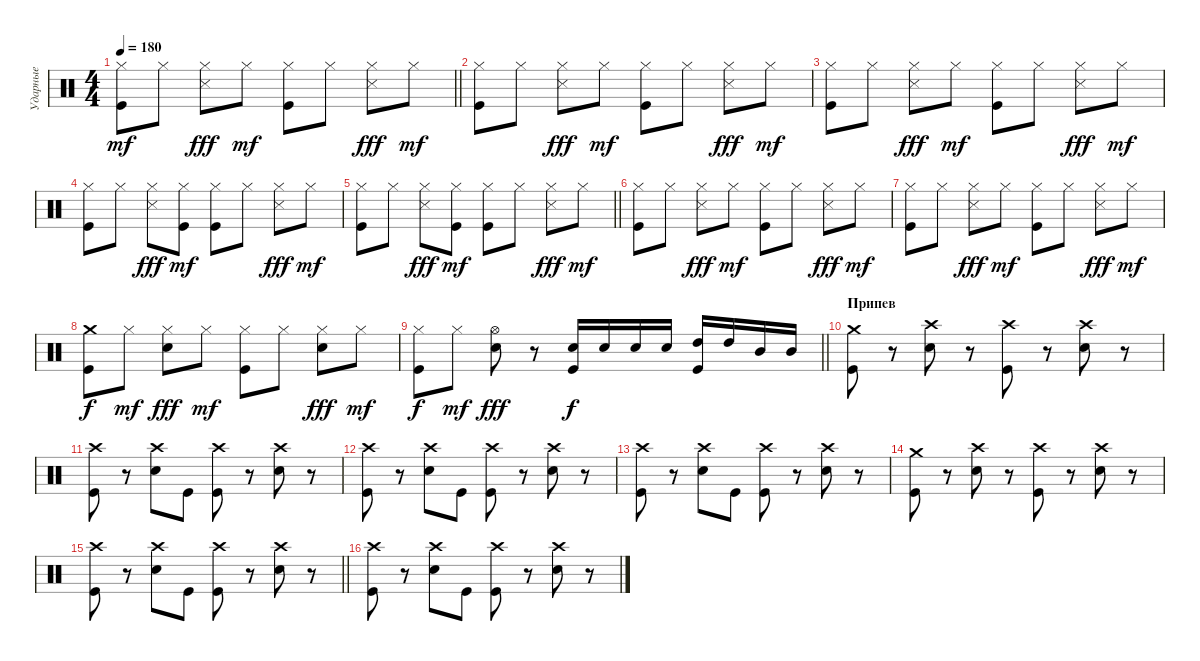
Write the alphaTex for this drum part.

\track ("Ударные" "Ударные") {instrument percussion}
\staff {score}
\articulation defaults
\ts (4 4)
\tempo 180
\clef neutral
\barLineRight lightlight
\ks c
("Hi-Hat (closed)" "Kick (hit)").8{dy mf} "Hi-Hat (closed)".8 ("Hi-Hat (closed)" "Metronome (hit)").8{dy fff} "Hi-Hat (closed)".8{dy mf} ("Hi-Hat (closed)" "Kick (hit)").8 "Hi-Hat (closed)".8 ("Hi-Hat (closed)" "Metronome (hit)").8{dy fff} "Hi-Hat (closed)".8{dy mf} |
("Hi-Hat (closed)" "Kick (hit)").8 "Hi-Hat (closed)".8 ("Hi-Hat (closed)" "Metronome (hit)").8{dy fff} "Hi-Hat (closed)".8{dy mf} ("Hi-Hat (closed)" "Kick (hit)").8 "Hi-Hat (closed)".8 ("Hi-Hat (closed)" "Metronome (hit)").8{dy fff} "Hi-Hat (closed)".8{dy mf} |
("Hi-Hat (closed)" "Kick (hit)").8 "Hi-Hat (closed)".8 ("Hi-Hat (closed)" "Metronome (hit)").8{dy fff} "Hi-Hat (closed)".8{dy mf} ("Hi-Hat (closed)" "Kick (hit)").8 "Hi-Hat (closed)".8 ("Hi-Hat (closed)" "Metronome (hit)").8{dy fff} "Hi-Hat (closed)".8{dy mf} |
("Hi-Hat (closed)" "Kick (hit)").8 "Hi-Hat (closed)".8 ("Hi-Hat (closed)" "Metronome (hit)").8{dy fff} ("Hi-Hat (closed)" "Kick (hit)").8{dy mf} ("Hi-Hat (closed)" "Kick (hit)").8 "Hi-Hat (closed)".8 ("Hi-Hat (closed)" "Metronome (hit)").8{dy fff} "Hi-Hat (closed)".8{dy mf} |
\barLineRight lightlight
("Hi-Hat (closed)" "Kick (hit)").8 "Hi-Hat (closed)".8 ("Hi-Hat (closed)" "Metronome (hit)").8{dy fff} ("Hi-Hat (closed)" "Kick (hit)").8{dy mf} ("Hi-Hat (closed)" "Kick (hit)").8 "Hi-Hat (closed)".8 ("Hi-Hat (closed)" "Metronome (hit)").8{dy fff} "Hi-Hat (closed)".8{dy mf} |
("Hi-Hat (closed)" "Kick (hit)").8 "Hi-Hat (closed)".8 ("Hi-Hat (closed)" "Metronome (hit)").8{dy fff} "Hi-Hat (closed)".8{dy mf} ("Hi-Hat (closed)" "Kick (hit)").8 "Hi-Hat (closed)".8 ("Hi-Hat (closed)" "Metronome (hit)").8{dy fff} "Hi-Hat (closed)".8{dy mf} |
("Hi-Hat (closed)" "Kick (hit)").8 "Hi-Hat (closed)".8 ("Hi-Hat (closed)" "Metronome (hit)").8{dy fff} "Hi-Hat (closed)".8{dy mf} ("Hi-Hat (closed)" "Kick (hit)").8 "Hi-Hat (closed)".8 ("Hi-Hat (closed)" "Metronome (hit)").8{dy fff} "Hi-Hat (closed)".8{dy mf} |
("Crash medium (hit)" "Kick (hit)").8{dy f} "Hi-Hat (closed)".8{dy mf} ("Hi-Hat (closed)" "Electric Snare (hit)").8{dy fff} "Hi-Hat (closed)".8{dy mf} ("Hi-Hat (closed)" "Kick (hit)").8 "Hi-Hat (closed)".8 ("Hi-Hat (closed)" "Electric Snare (hit)").8{dy fff} "Hi-Hat (closed)".8{dy mf} |
\barLineRight lightlight
("Hi-Hat (closed)" "Kick (hit)").8{dy f} "Hi-Hat (closed)".8{dy mf} ("Hi-Hat (open)" "Electric Snare (hit)").8{dy fff} r.8 ("Electric Snare (hit)" "Kick (hit)").16{dy f} "Electric Snare (hit)".16 "Electric Snare (hit)".16 "Electric Snare (hit)".16 ("High Tom (hit)" "Kick (hit)").16 "High Tom (hit)".16 "Mid Tom (hit)".16 "Mid Tom (hit)".16 |
\section ("" "Припев")
("Crash medium (hit)" "Kick (hit)").8 r.8 ("Crash high (hit)" "Electric Snare (hit)").8 r.8 ("Crash high (hit)" "Kick (hit)").8 r.8 ("Crash high (hit)" "Electric Snare (hit)").8 r.8 |
("Crash high (hit)" "Kick (hit)").8 r.8 ("Crash high (hit)" "Electric Snare (hit)").8 "Kick (hit)".8 ("Crash high (hit)" "Kick (hit)").8 r.8 ("Crash high (hit)" "Electric Snare (hit)").8 r.8 |
("Crash high (hit)" "Kick (hit)").8 r.8 ("Crash high (hit)" "Electric Snare (hit)").8 "Kick (hit)".8 ("Crash high (hit)" "Kick (hit)").8 r.8 ("Crash high (hit)" "Electric Snare (hit)").8 r.8 |
("Crash high (hit)" "Kick (hit)").8 r.8 ("Crash high (hit)" "Electric Snare (hit)").8 "Kick (hit)".8 ("Crash high (hit)" "Kick (hit)").8 r.8 ("Crash high (hit)" "Electric Snare (hit)").8 r.8 |
("Crash medium (hit)" "Kick (hit)").8 r.8 ("Crash high (hit)" "Electric Snare (hit)").8 r.8 ("Crash high (hit)" "Kick (hit)").8 r.8 ("Crash high (hit)" "Electric Snare (hit)").8 r.8 |
\barLineRight lightlight
("Crash high (hit)" "Kick (hit)").8 r.8 ("Crash high (hit)" "Electric Snare (hit)").8 "Kick (hit)".8 ("Crash high (hit)" "Kick (hit)").8 r.8 ("Crash high (hit)" "Electric Snare (hit)").8 r.8 |
("Crash high (hit)" "Kick (hit)").8 r.8 ("Crash high (hit)" "Electric Snare (hit)").8 "Kick (hit)".8 ("Crash high (hit)" "Kick (hit)").8 r.8 ("Crash high (hit)" "Electric Snare (hit)").8 r.8
